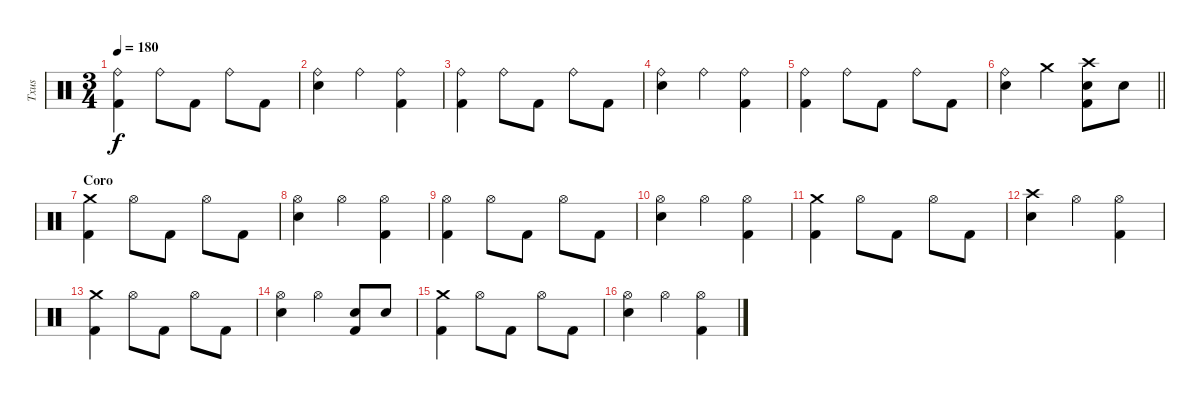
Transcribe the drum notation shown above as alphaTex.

\track ("Txus" "Txus") {instrument percussion}
\staff {score}
\articulation defaults
\ts (3 4)
\tempo 180
\clef neutral
\ks c
("Ride (bell)" "Kick (hit) 2").4{dy f} "Ride (bell)".8 "Kick (hit) 2".8 "Ride (bell)".8 "Kick (hit) 2".8 |
("Ride (bell)" "Snare (hit) 2").4 "Ride (bell)".4 ("Ride (bell)" "Kick (hit) 2").4 |
("Ride (bell)" "Kick (hit) 2").4 "Ride (bell)".8 "Kick (hit) 2".8 "Ride (bell)".8 "Kick (hit) 2".8 |
("Ride (bell)" "Snare (hit) 2").4 "Ride (bell)".4 ("Ride (bell)" "Kick (hit) 2").4 |
("Ride (bell)" "Kick (hit) 2").4 "Ride (bell)".8 "Kick (hit) 2".8 "Ride (bell)".8 "Kick (hit) 2".8 |
\barLineRight lightlight
("Ride (bell)" "Snare (hit) 2").4 "Crash medium (hit)".4 ("Crash high (hit)" "Snare (hit) 2" "Kick (hit) 2").8 "Snare (hit) 2".8 |
\section ("" "Coro")
("Crash medium (hit)" "Kick (hit) 2").4 "Hi-Hat (open)".8 "Kick (hit) 2".8 "Hi-Hat (open)".8 "Kick (hit) 2".8 |
("Hi-Hat (open)" "Snare (hit) 2").4 "Hi-Hat (open)".4 ("Hi-Hat (open)" "Kick (hit) 2").4 |
("Hi-Hat (open)" "Kick (hit) 2").4 "Hi-Hat (open)".8 "Kick (hit) 2".8 "Hi-Hat (open)".8 "Kick (hit) 2".8 |
("Hi-Hat (open)" "Snare (hit) 2").4 "Hi-Hat (open)".4 ("Hi-Hat (open)" "Kick (hit) 2").4 |
("Crash medium (hit)" "Kick (hit) 2").4 "Hi-Hat (open)".8 "Kick (hit) 2".8 "Hi-Hat (open)".8 "Kick (hit) 2".8 |
("Crash high (hit)" "Snare (hit) 2").4 "Hi-Hat (open)".4 ("Hi-Hat (open)" "Kick (hit) 2").4 |
("Crash medium (hit)" "Kick (hit) 2").4 "Hi-Hat (open)".8 "Kick (hit) 2".8 "Hi-Hat (open)".8 "Kick (hit) 2".8 |
("Hi-Hat (open)" "Snare (hit) 2").4 "Hi-Hat (open)".4 ("Snare (hit) 2" "Kick (hit) 2").8 "Snare (hit) 2".8 |
("Crash medium (hit)" "Kick (hit) 2").4 "Hi-Hat (open)".8 "Kick (hit) 2".8 "Hi-Hat (open)".8 "Kick (hit) 2".8 |
("Hi-Hat (open)" "Snare (hit) 2").4 "Hi-Hat (open)".4 ("Hi-Hat (open)" "Kick (hit) 2").4
